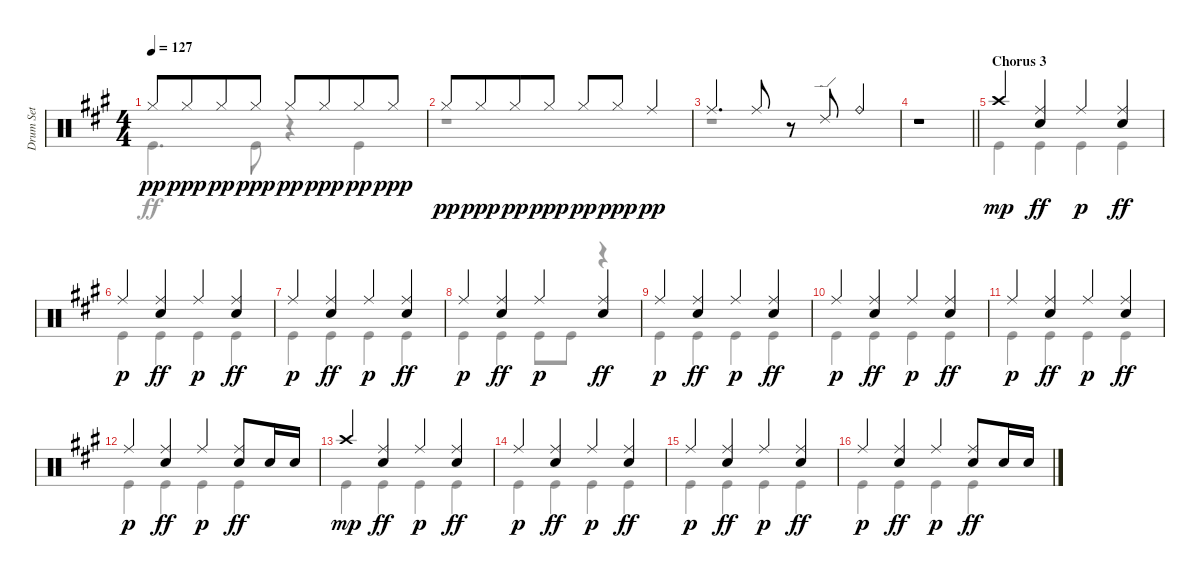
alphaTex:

\track ("Drum Set" "Drum Set") {instrument percussion}
\staff {score}
\articulation defaults
\voice
\ts (4 4)
\tempo 127
\clef neutral
\ks a "Hi-Hat (closed)".8{dy pp} "Hi-Hat (closed)".8{dy ppp beam merge} "Hi-Hat (closed)".8{dy pp} "Hi-Hat (closed)".8{dy ppp} "Hi-Hat (closed)".8{dy pp} "Hi-Hat (closed)".8{dy ppp beam merge} "Hi-Hat (closed)".8{dy pp} "Hi-Hat (closed)".8{dy ppp}
|
"Hi-Hat (closed)".8{dy pp} "Hi-Hat (closed)".8{dy ppp beam merge} "Hi-Hat (closed)".8{dy pp} "Hi-Hat (closed)".8{dy ppp} "Hi-Hat (closed)".8{dy pp} "Hi-Hat (closed)".8{dy ppp} "Ride (middle)".4{dy pp} |
"Ride (middle)".4{d} "Ride (middle)".8 r.8 "Ride (edge) 2".8 "Ride (bell)".4 |
\barLineRight lightlight
r.1 |
\section ("" "Chorus 3")
"Crash high (hit)".4{dy mp} ("Ride (middle)" "Electric Snare (hit)").4{dy ff} "Ride (middle)".4{dy p} ("Ride (middle)" "Electric Snare (hit)").4{dy ff} |
"Ride (middle)".4{dy p} ("Ride (middle)" "Electric Snare (hit)").4{dy ff} "Ride (middle)".4{dy p} ("Ride (middle)" "Electric Snare (hit)").4{dy ff} |
"Ride (middle)".4{dy p} ("Ride (middle)" "Electric Snare (hit)").4{dy ff} "Ride (middle)".4{dy p} ("Ride (middle)" "Electric Snare (hit)").4{dy ff} |
"Ride (middle)".4{dy p} ("Ride (middle)" "Electric Snare (hit)").4{dy ff} "Ride (middle)".4{dy p} ("Ride (middle)" "Electric Snare (hit)").4{dy ff} |
"Ride (middle)".4{dy p} ("Ride (middle)" "Electric Snare (hit)").4{dy ff} "Ride (middle)".4{dy p} ("Ride (middle)" "Electric Snare (hit)").4{dy ff} |
"Ride (middle)".4{dy p} ("Ride (middle)" "Electric Snare (hit)").4{dy ff} "Ride (middle)".4{dy p} ("Ride (middle)" "Electric Snare (hit)").4{dy ff} |
"Ride (middle)".4{dy p} ("Ride (middle)" "Electric Snare (hit)").4{dy ff} "Ride (middle)".4{dy p} ("Ride (middle)" "Electric Snare (hit)").4{dy ff} |
"Ride (middle)".4{dy p} ("Ride (middle)" "Electric Snare (hit)").4{dy ff} "Ride (middle)".4{dy p} ("Ride (middle)" "Electric Snare (hit)").8{dy ff} "Electric Snare (hit)".16 "Electric Snare (hit)".16 |
"Crash high (hit)".4{dy mp} ("Ride (middle)" "Electric Snare (hit)").4{dy ff} "Ride (middle)".4{dy p} ("Ride (middle)" "Electric Snare (hit)").4{dy ff} |
"Ride (middle)".4{dy p} ("Ride (middle)" "Electric Snare (hit)").4{dy ff} "Ride (middle)".4{dy p} ("Ride (middle)" "Electric Snare (hit)").4{dy ff} |
"Ride (middle)".4{dy p} ("Ride (middle)" "Electric Snare (hit)").4{dy ff} "Ride (middle)".4{dy p} ("Ride (middle)" "Electric Snare (hit)").4{dy ff} |
"Ride (middle)".4{dy p} ("Ride (middle)" "Electric Snare (hit)").4{dy ff} "Ride (middle)".4{dy p} ("Ride (middle)" "Electric Snare (hit)").8{dy ff} "Electric Snare (hit)".16 "Electric Snare (hit)".16
\voice
\clef neutral
\ottava regular
\simile none
\ks a "Kick (hit)".4{d dy ff} "Kick (hit)".8
r.4 "Kick (hit)".4 |
r.1 |
r.1 |
\barLineRight lightlight
|
"Kick (hit)".4 "Kick (hit)".4 "Kick (hit)".4 "Kick (hit)".4 |
"Kick (hit)".4 "Kick (hit)".4 "Kick (hit)".4 "Kick (hit)".4 |
"Kick (hit)".4 "Kick (hit)".4 "Kick (hit)".4 "Kick (hit)".4 |
"Kick (hit)".4 "Kick (hit)".4 "Kick (hit)".8 "Kick (hit)".8 r.4 |
"Kick (hit)".4 "Kick (hit)".4 "Kick (hit)".4 "Kick (hit)".4 |
"Kick (hit)".4 "Kick (hit)".4 "Kick (hit)".4 "Kick (hit)".4 |
"Kick (hit)".4 "Kick (hit)".4 "Kick (hit)".4 "Kick (hit)".4 |
"Kick (hit)".4 "Kick (hit)".4 "Kick (hit)".4 "Kick (hit)".4 |
"Kick (hit)".4 "Kick (hit)".4 "Kick (hit)".4 "Kick (hit)".4 |
"Kick (hit)".4 "Kick (hit)".4 "Kick (hit)".4 "Kick (hit)".4 |
"Kick (hit)".4 "Kick (hit)".4 "Kick (hit)".4 "Kick (hit)".4 |
"Kick (hit)".4 "Kick (hit)".4 "Kick (hit)".4 "Kick (hit)".4
